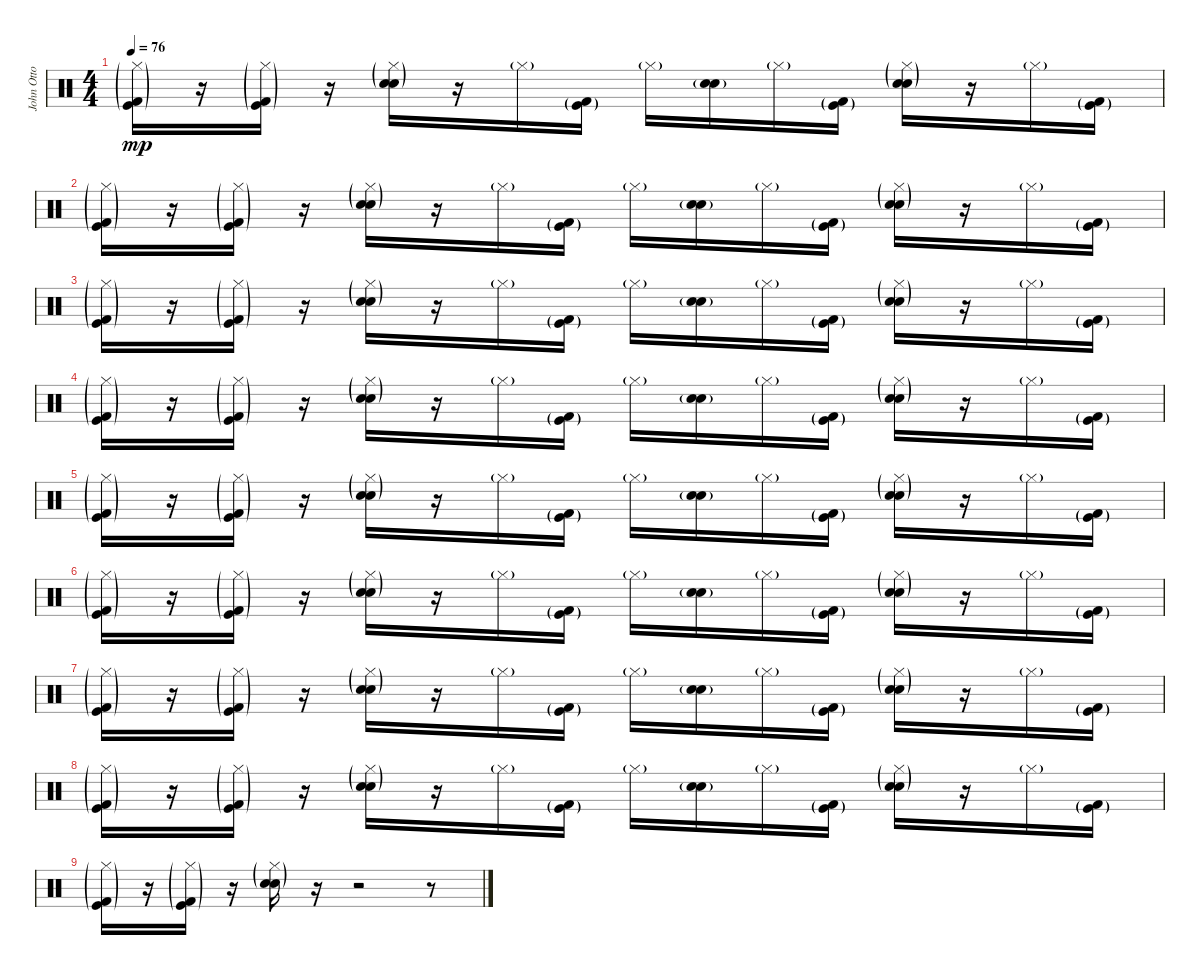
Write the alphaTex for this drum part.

\track ("John Otto - Drums" "John Otto ") {instrument percussion}
\staff {score}
\articulation defaults
\ts (4 4)
\tempo 76
\clef neutral
\ks c
("Hi-Hat (closed)"{g} "Kick (hit)"{g} "Kick (hit) 2"{g}).16{dy mp} r.16 ("Hi-Hat (closed)"{g} "Kick (hit)"{g} "Kick (hit) 2"{g}).16 r.16 ("Hi-Hat (closed)"{g} "Electric Snare (hit)"{g} "Snare (hit) 2"{g}).16 r.16 "Hi-Hat (closed)"{g}.16 ("Kick (hit)"{g} "Kick (hit) 2"{g}).16 "Hi-Hat (closed)"{g}.16 ("Electric Snare (hit)"{g} "Snare (hit) 2"{g}).16 "Hi-Hat (closed)"{g}.16 ("Kick (hit)"{g} "Kick (hit) 2"{g}).16 ("Hi-Hat (closed)"{g} "Electric Snare (hit)"{g} "Snare (hit) 2"{g}).16 r.16 "Hi-Hat (closed)"{g}.16 ("Kick (hit)"{g} "Kick (hit) 2"{g}).16 |
("Hi-Hat (closed)"{g} "Kick (hit)"{g} "Kick (hit) 2"{g}).16 r.16 ("Hi-Hat (closed)"{g} "Kick (hit)"{g} "Kick (hit) 2"{g}).16 r.16 ("Hi-Hat (closed)"{g} "Electric Snare (hit)"{g} "Snare (hit) 2"{g}).16 r.16 "Hi-Hat (closed)"{g}.16 ("Kick (hit)"{g} "Kick (hit) 2"{g}).16 "Hi-Hat (closed)"{g}.16 ("Electric Snare (hit)"{g} "Snare (hit) 2"{g}).16 "Hi-Hat (closed)"{g}.16 ("Kick (hit)"{g} "Kick (hit) 2"{g}).16 ("Hi-Hat (closed)"{g} "Electric Snare (hit)"{g} "Snare (hit) 2"{g}).16 r.16 "Hi-Hat (closed)"{g}.16 ("Kick (hit)"{g} "Kick (hit) 2"{g}).16 |
("Hi-Hat (closed)"{g} "Kick (hit)"{g} "Kick (hit) 2"{g}).16 r.16 ("Hi-Hat (closed)"{g} "Kick (hit)"{g} "Kick (hit) 2"{g}).16 r.16 ("Hi-Hat (closed)"{g} "Electric Snare (hit)"{g} "Snare (hit) 2"{g}).16 r.16 "Hi-Hat (closed)"{g}.16 ("Kick (hit)"{g} "Kick (hit) 2"{g}).16 "Hi-Hat (closed)"{g}.16 ("Electric Snare (hit)"{g} "Snare (hit) 2"{g}).16 "Hi-Hat (closed)"{g}.16 ("Kick (hit)"{g} "Kick (hit) 2"{g}).16 ("Hi-Hat (closed)"{g} "Electric Snare (hit)"{g} "Snare (hit) 2"{g}).16 r.16 "Hi-Hat (closed)"{g}.16 ("Kick (hit)"{g} "Kick (hit) 2"{g}).16 |
("Hi-Hat (closed)"{g} "Kick (hit)"{g} "Kick (hit) 2"{g}).16 r.16 ("Hi-Hat (closed)"{g} "Kick (hit)"{g} "Kick (hit) 2"{g}).16 r.16 ("Hi-Hat (closed)"{g} "Electric Snare (hit)"{g} "Snare (hit) 2"{g}).16 r.16 "Hi-Hat (closed)"{g}.16 ("Kick (hit)"{g} "Kick (hit) 2"{g}).16 "Hi-Hat (closed)"{g}.16 ("Electric Snare (hit)"{g} "Snare (hit) 2"{g}).16 "Hi-Hat (closed)"{g}.16 ("Kick (hit)"{g} "Kick (hit) 2"{g}).16 ("Hi-Hat (closed)"{g} "Electric Snare (hit)"{g} "Snare (hit) 2"{g}).16 r.16 "Hi-Hat (closed)"{g}.16 ("Kick (hit)"{g} "Kick (hit) 2"{g}).16 |
("Hi-Hat (closed)"{g} "Kick (hit)"{g} "Kick (hit) 2"{g}).16 r.16 ("Hi-Hat (closed)"{g} "Kick (hit)"{g} "Kick (hit) 2"{g}).16 r.16 ("Hi-Hat (closed)"{g} "Electric Snare (hit)"{g} "Snare (hit) 2"{g}).16 r.16 "Hi-Hat (closed)"{g}.16 ("Kick (hit)"{g} "Kick (hit) 2"{g}).16 "Hi-Hat (closed)"{g}.16 ("Electric Snare (hit)"{g} "Snare (hit) 2"{g}).16 "Hi-Hat (closed)"{g}.16 ("Kick (hit)"{g} "Kick (hit) 2"{g}).16 ("Hi-Hat (closed)"{g} "Electric Snare (hit)"{g} "Snare (hit) 2"{g}).16 r.16 "Hi-Hat (closed)"{g}.16 ("Kick (hit)"{g} "Kick (hit) 2"{g}).16 |
("Hi-Hat (closed)"{g} "Kick (hit)"{g} "Kick (hit) 2"{g}).16 r.16 ("Hi-Hat (closed)"{g} "Kick (hit)"{g} "Kick (hit) 2"{g}).16 r.16 ("Hi-Hat (closed)"{g} "Electric Snare (hit)"{g} "Snare (hit) 2"{g}).16 r.16 "Hi-Hat (closed)"{g}.16 ("Kick (hit)"{g} "Kick (hit) 2"{g}).16 "Hi-Hat (closed)"{g}.16 ("Electric Snare (hit)"{g} "Snare (hit) 2"{g}).16 "Hi-Hat (closed)"{g}.16 ("Kick (hit)"{g} "Kick (hit) 2"{g}).16 ("Hi-Hat (closed)"{g} "Electric Snare (hit)"{g} "Snare (hit) 2"{g}).16 r.16 "Hi-Hat (closed)"{g}.16 ("Kick (hit)"{g} "Kick (hit) 2"{g}).16 |
("Hi-Hat (closed)"{g} "Kick (hit)"{g} "Kick (hit) 2"{g}).16 r.16 ("Hi-Hat (closed)"{g} "Kick (hit)"{g} "Kick (hit) 2"{g}).16 r.16 ("Hi-Hat (closed)"{g} "Electric Snare (hit)"{g} "Snare (hit) 2"{g}).16 r.16 "Hi-Hat (closed)"{g}.16 ("Kick (hit)"{g} "Kick (hit) 2"{g}).16 "Hi-Hat (closed)"{g}.16 ("Electric Snare (hit)"{g} "Snare (hit) 2"{g}).16 "Hi-Hat (closed)"{g}.16 ("Kick (hit)"{g} "Kick (hit) 2"{g}).16 ("Hi-Hat (closed)"{g} "Electric Snare (hit)"{g} "Snare (hit) 2"{g}).16 r.16 "Hi-Hat (closed)"{g}.16 ("Kick (hit)"{g} "Kick (hit) 2"{g}).16 |
("Hi-Hat (closed)"{g} "Kick (hit)"{g} "Kick (hit) 2"{g}).16 r.16 ("Hi-Hat (closed)"{g} "Kick (hit)"{g} "Kick (hit) 2"{g}).16 r.16 ("Hi-Hat (closed)"{g} "Electric Snare (hit)"{g} "Snare (hit) 2"{g}).16 r.16 "Hi-Hat (closed)"{g}.16 ("Kick (hit)"{g} "Kick (hit) 2"{g}).16 "Hi-Hat (closed)"{g}.16 ("Electric Snare (hit)"{g} "Snare (hit) 2"{g}).16 "Hi-Hat (closed)"{g}.16 ("Kick (hit)"{g} "Kick (hit) 2"{g}).16 ("Hi-Hat (closed)"{g} "Electric Snare (hit)"{g} "Snare (hit) 2"{g}).16 r.16 "Hi-Hat (closed)"{g}.16 ("Kick (hit)"{g} "Kick (hit) 2"{g}).16 |
("Hi-Hat (closed)"{g} "Kick (hit)"{g} "Kick (hit) 2"{g}).16 r.16 ("Hi-Hat (closed)"{g} "Kick (hit)"{g} "Kick (hit) 2"{g}).16 r.16 ("Hi-Hat (closed)"{g} "Electric Snare (hit)"{g} "Snare (hit) 2"{g}).16 r.16 r.2 r.8
